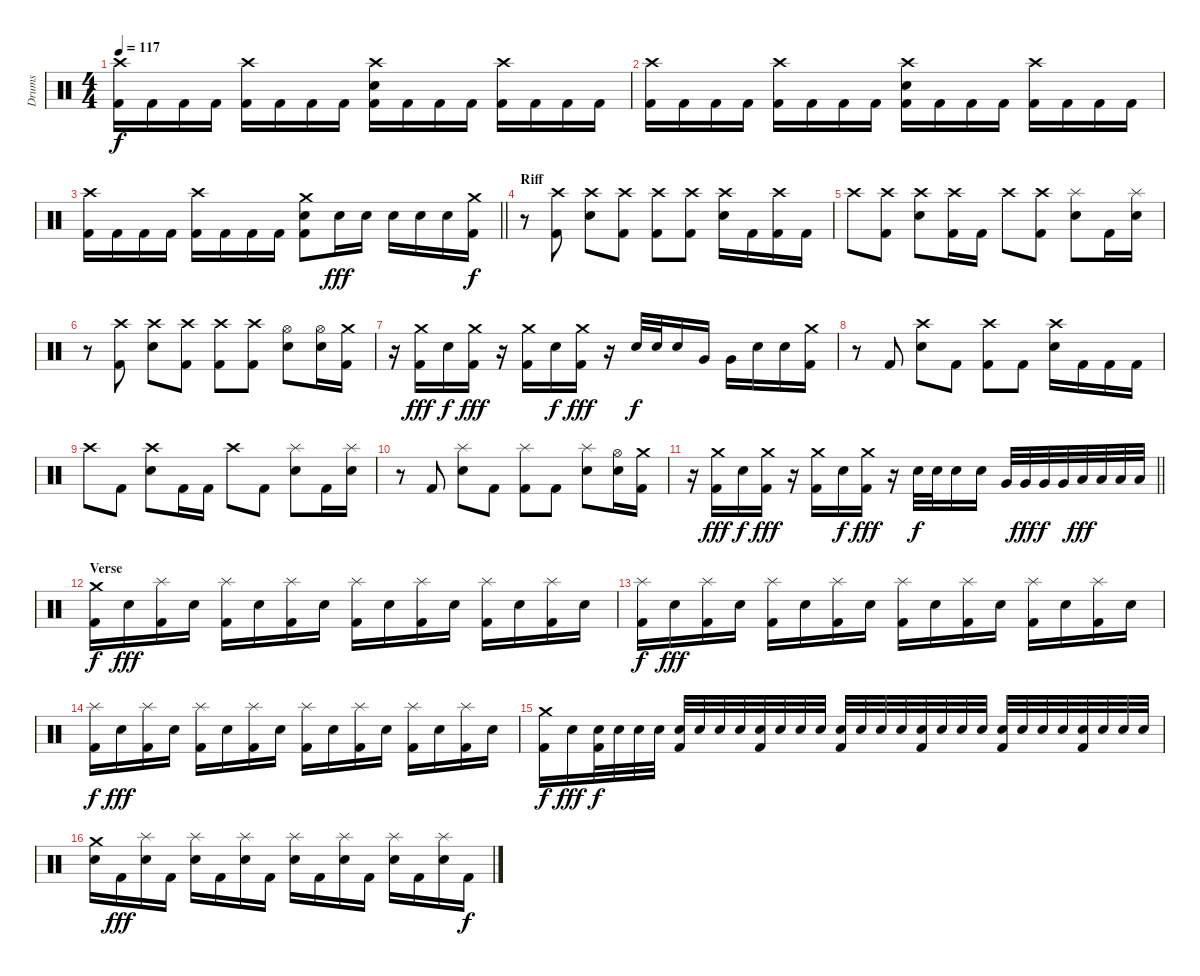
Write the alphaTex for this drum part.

\track ("Drums" "Drums") {instrument percussion}
\staff {score}
\articulation defaults
\ts (4 4)
\tempo 117
\clef neutral
\ks c
("Crash high (hit)" "Kick (hit) 2").16{dy f} "Kick (hit) 2".16 "Kick (hit) 2".16 "Kick (hit) 2".16 ("Crash high (hit)" "Kick (hit) 2").16 "Kick (hit) 2".16 "Kick (hit) 2".16 "Kick (hit) 2".16 ("Crash high (hit)" "Electric Snare (hit)" "Kick (hit) 2").16 "Kick (hit) 2".16 "Kick (hit) 2".16 "Kick (hit) 2".16 ("Crash high (hit)" "Kick (hit) 2").16 "Kick (hit) 2".16 "Kick (hit) 2".16 "Kick (hit) 2".16 |
("Crash high (hit)" "Kick (hit) 2").16 "Kick (hit) 2".16 "Kick (hit) 2".16 "Kick (hit) 2".16 ("Crash high (hit)" "Kick (hit) 2").16 "Kick (hit) 2".16 "Kick (hit) 2".16 "Kick (hit) 2".16 ("Crash high (hit)" "Electric Snare (hit)" "Kick (hit) 2").16 "Kick (hit) 2".16 "Kick (hit) 2".16 "Kick (hit) 2".16 ("Crash high (hit)" "Kick (hit) 2").16 "Kick (hit) 2".16 "Kick (hit) 2".16 "Kick (hit) 2".16 |
\barLineRight lightlight
("Crash high (hit)" "Kick (hit) 2").16 "Kick (hit) 2".16 "Kick (hit) 2".16 "Kick (hit) 2".16 ("Crash high (hit)" "Kick (hit) 2").16 "Kick (hit) 2".16 "Kick (hit) 2".16 "Kick (hit) 2".16 ("Crash medium (hit)" "Electric Snare (hit)" "Kick (hit) 2").8 "Electric Snare (hit)".16{dy fff} "Electric Snare (hit)".16 "Electric Snare (hit)".16 "Electric Snare (hit)".16 "Electric Snare (hit)".16 ("Crash medium (hit)" "Kick (hit) 2").16{dy f} |
\section ("" "Riff")
r.8 ("Crash high (hit)" "Kick (hit) 2").8 ("Crash high (hit)" "Electric Snare (hit)").8 ("Crash high (hit)" "Kick (hit) 2").8 ("Crash high (hit)" "Kick (hit) 2").8 ("Crash high (hit)" "Kick (hit) 2").8 ("Crash high (hit)" "Electric Snare (hit)").16 "Kick (hit) 2".16 ("Crash high (hit)" "Kick (hit) 2").16 "Kick (hit) 2".16 |
"Crash high (hit)".8 ("Crash high (hit)" "Kick (hit) 2").8 ("Crash high (hit)" "Electric Snare (hit)").8 ("Crash high (hit)" "Kick (hit) 2").16 "Kick (hit) 2".16 "Crash high (hit)".8 ("Crash high (hit)" "Kick (hit) 2").8 ("Splash (hit)" "Electric Snare (hit)").8 "Kick (hit) 2".16 ("Splash (hit)" "Electric Snare (hit)").16 |
r.8 ("Crash high (hit)" "Kick (hit) 2").8 ("Crash high (hit)" "Electric Snare (hit)").8 ("Crash high (hit)" "Kick (hit) 2").8 ("Crash high (hit)" "Kick (hit) 2").8 ("Crash high (hit)" "Kick (hit) 2").8 ("Hi-Hat (open)" "Electric Snare (hit)").8 ("Hi-Hat (open)" "Electric Snare (hit)").16 ("Crash medium (hit)" "Kick (hit) 2").16 |
r.16 ("Crash medium (hit)" "Kick (hit) 2").16{dy fff} "Electric Snare (hit)".16{dy f} ("Crash medium (hit)" "Kick (hit) 2").16{dy fff} r.16 ("Crash medium (hit)" "Kick (hit) 2").16 "Electric Snare (hit)".16{dy f} ("Crash medium (hit)" "Kick (hit) 2").16{dy fff} r.16 "Electric Snare (hit)".32{dy f} "Electric Snare (hit)".32 "Electric Snare (hit)".16 "Very Low Tom (hit)".16 "Very Low Tom (hit)".16 "Electric Snare (hit)".16 "Electric Snare (hit)".16 ("Crash medium (hit)" "Kick (hit) 2").16 |
r.8 "Kick (hit) 2".8 ("Crash high (hit)" "Electric Snare (hit)").8 "Kick (hit) 2".8 ("Crash high (hit)" "Kick (hit) 2").8 "Kick (hit) 2".8 ("Crash high (hit)" "Electric Snare (hit)").16 "Kick (hit) 2".16 "Kick (hit) 2".16 "Kick (hit) 2".16 |
"Crash high (hit)".8 "Kick (hit) 2".8 ("Crash high (hit)" "Electric Snare (hit)").8 "Kick (hit) 2".16 "Kick (hit) 2".16 "Crash high (hit)".8 "Kick (hit) 2".8 ("Splash (hit)" "Electric Snare (hit)").8 "Kick (hit) 2".16 ("Splash (hit)" "Electric Snare (hit)").16 |
r.8 "Kick (hit) 2".8 ("Splash (hit)" "Electric Snare (hit)").8 "Kick (hit) 2".8 ("Splash (hit)" "Kick (hit) 2").8 "Kick (hit) 2".8 ("Splash (hit)" "Electric Snare (hit)").8 ("Hi-Hat (open)" "Electric Snare (hit)").16 ("Crash medium (hit)" "Kick (hit) 2").16 |
\barLineRight lightlight
r.16 ("Crash medium (hit)" "Kick (hit) 2").16{dy fff} "Electric Snare (hit)".16{dy f} ("Crash medium (hit)" "Kick (hit) 2").16{dy fff} r.16 ("Crash medium (hit)" "Kick (hit) 2").16 "Electric Snare (hit)".16{dy f} ("Crash medium (hit)" "Kick (hit) 2").16{dy fff} r.16 "Electric Snare (hit)".32{dy f} "Electric Snare (hit)".32 "Electric Snare (hit)".16 "Electric Snare (hit)".16 "Very Low Tom (hit)".32 "Very Low Tom (hit)".32{dy fff} "Very Low Tom (hit)".32{dy f} "Very Low Tom (hit)".32 "Low Floor Tom (hit)".32{dy fff} "Low Floor Tom (hit)".32 "Low Floor Tom (hit)".32 "Low Floor Tom (hit)".32 |
\section ("" "Verse")
("Crash medium (hit)" "Kick (hit) 2").16{dy f} "Electric Snare (hit)".16{dy fff} ("Splash (hit)" "Kick (hit) 2").16 "Electric Snare (hit)".16 ("Splash (hit)" "Kick (hit) 2").16 "Electric Snare (hit)".16 ("Splash (hit)" "Kick (hit) 2").16 "Electric Snare (hit)".16 ("Splash (hit)" "Kick (hit) 2").16 "Electric Snare (hit)".16 ("Splash (hit)" "Kick (hit) 2").16 "Electric Snare (hit)".16 ("Splash (hit)" "Kick (hit) 2").16 "Electric Snare (hit)".16 ("Splash (hit)" "Kick (hit) 2").16 "Electric Snare (hit)".16 |
("Splash (hit)" "Kick (hit) 2").16{dy f} "Electric Snare (hit)".16{dy fff} ("Splash (hit)" "Kick (hit) 2").16 "Electric Snare (hit)".16 ("Splash (hit)" "Kick (hit) 2").16 "Electric Snare (hit)".16 ("Splash (hit)" "Kick (hit) 2").16 "Electric Snare (hit)".16 ("Splash (hit)" "Kick (hit) 2").16 "Electric Snare (hit)".16 ("Splash (hit)" "Kick (hit) 2").16 "Electric Snare (hit)".16 ("Splash (hit)" "Kick (hit) 2").16 "Electric Snare (hit)".16 ("Splash (hit)" "Kick (hit) 2").16 "Electric Snare (hit)".16 |
("Splash (hit)" "Kick (hit) 2").16{dy f} "Electric Snare (hit)".16{dy fff} ("Splash (hit)" "Kick (hit) 2").16 "Electric Snare (hit)".16 ("Splash (hit)" "Kick (hit) 2").16 "Electric Snare (hit)".16 ("Splash (hit)" "Kick (hit) 2").16 "Electric Snare (hit)".16 ("Splash (hit)" "Kick (hit) 2").16 "Electric Snare (hit)".16 ("Splash (hit)" "Kick (hit) 2").16 "Electric Snare (hit)".16 ("Splash (hit)" "Kick (hit) 2").16 "Electric Snare (hit)".16 ("Splash (hit)" "Kick (hit) 2").16 "Electric Snare (hit)".16 |
("Crash medium (hit)" "Kick (hit) 2").16{dy f} "Electric Snare (hit)".16{dy fff} ("Snare (hit) 2" "Kick (hit) 2").32{dy f volume 9} "Snare (hit) 2".32 "Snare (hit) 2".32 "Snare (hit) 2".32 ("Snare (hit) 2" "Kick (hit) 2").32 "Snare (hit) 2".32 "Snare (hit) 2".32 "Snare (hit) 2".32 ("Snare (hit) 2" "Kick (hit) 2").32 "Snare (hit) 2".32 "Snare (hit) 2".32 "Snare (hit) 2".32 ("Snare (hit) 2" "Kick (hit) 2").32 "Snare (hit) 2".32 "Snare (hit) 2".32 "Snare (hit) 2".32 ("Snare (hit) 2" "Kick (hit) 2").32 "Snare (hit) 2".32 "Snare (hit) 2".32 "Snare (hit) 2".32 ("Snare (hit) 2" "Kick (hit) 2").32 "Snare (hit) 2".32 "Snare (hit) 2".32 "Snare (hit) 2".32 ("Snare (hit) 2" "Kick (hit) 2").32 "Snare (hit) 2".32 "Snare (hit) 2".32 "Snare (hit) 2".32 |
("Crash medium (hit)" "Electric Snare (hit)").16{volume 13} "Kick (hit) 2".16{dy fff} ("Splash (hit)" "Electric Snare (hit)").16 "Kick (hit) 2".16 ("Splash (hit)" "Electric Snare (hit)").16 "Kick (hit) 2".16 ("Splash (hit)" "Electric Snare (hit)").16 "Kick (hit) 2".16 ("Splash (hit)" "Electric Snare (hit)").16 "Kick (hit) 2".16 ("Splash (hit)" "Electric Snare (hit)").16 "Kick (hit) 2".16 ("Splash (hit)" "Electric Snare (hit)").16 "Kick (hit) 2".16 ("Splash (hit)" "Electric Snare (hit)").16 "Kick (hit) 2".16{dy f}
